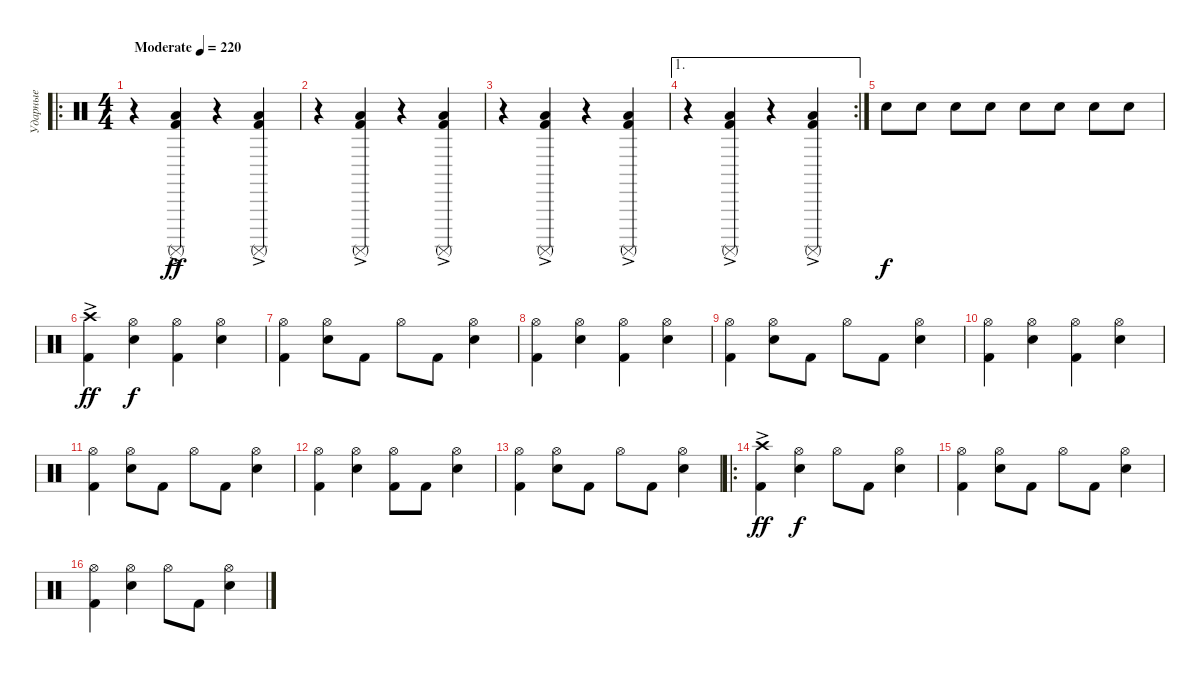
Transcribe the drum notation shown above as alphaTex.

\track ("Ударные" "Ударные") {instrument percussion}
\staff {score}
\articulation defaults
\ro
\ts (4 4)
\tempo (220 "Moderate")
\clef neutral
\ks c
r.4{dy ff} ("Kick (hit) 2" "Low Floor Tom (hit)"{ac} "Surdo (mute)"{ac}).4 r.4 ("Kick (hit) 2" "Low Floor Tom (hit)"{ac} "Surdo (mute)"{ac}).4 |
r.4 ("Kick (hit) 2" "Low Floor Tom (hit)"{ac} "Surdo (mute)"{ac}).4 r.4 ("Kick (hit) 2" "Low Floor Tom (hit)"{ac} "Surdo (mute)"{ac}).4 |
r.4 ("Kick (hit) 2" "Low Floor Tom (hit)"{ac} "Surdo (mute)"{ac}).4 r.4 ("Kick (hit) 2" "Low Floor Tom (hit)"{ac} "Surdo (mute)"{ac}).4 |
\ae 1
\rc 2
r.4 ("Kick (hit) 2" "Low Floor Tom (hit)"{ac} "Surdo (mute)"{ac}).4 r.4 ("Kick (hit) 2" "Low Floor Tom (hit)"{ac} "Surdo (mute)"{ac}).4 |
"Snare (hit) 2".8{dy f} "Snare (hit) 2".8 "Snare (hit) 2".8 "Snare (hit) 2".8 "Snare (hit) 2".8 "Snare (hit) 2".8 "Snare (hit) 2".8 "Snare (hit) 2".8 |
("Kick (hit) 2" "Crash high (hit)"{ac}).4{dy ff} ("Snare (hit) 2" "Hi-Hat (open)").4{dy f} ("Kick (hit) 2" "Hi-Hat (open)").4 ("Snare (hit) 2" "Hi-Hat (open)").4 |
("Kick (hit) 2" "Hi-Hat (open)").4 ("Snare (hit) 2" "Hi-Hat (open)").8 "Kick (hit) 2".8 "Hi-Hat (open)".8 "Kick (hit) 2".8 ("Snare (hit) 2" "Hi-Hat (open)").4 |
("Kick (hit) 2" "Hi-Hat (open)").4 ("Snare (hit) 2" "Hi-Hat (open)").4 ("Kick (hit) 2" "Hi-Hat (open)").4 ("Snare (hit) 2" "Hi-Hat (open)").4 |
("Kick (hit) 2" "Hi-Hat (open)").4 ("Snare (hit) 2" "Hi-Hat (open)").8 "Kick (hit) 2".8 "Hi-Hat (open)".8 "Kick (hit) 2".8 ("Snare (hit) 2" "Hi-Hat (open)").4 |
("Kick (hit) 2" "Hi-Hat (open)").4 ("Snare (hit) 2" "Hi-Hat (open)").4 ("Kick (hit) 2" "Hi-Hat (open)").4 ("Snare (hit) 2" "Hi-Hat (open)").4 |
("Kick (hit) 2" "Hi-Hat (open)").4 ("Snare (hit) 2" "Hi-Hat (open)").8 "Kick (hit) 2".8 "Hi-Hat (open)".8 "Kick (hit) 2".8 ("Snare (hit) 2" "Hi-Hat (open)").4 |
("Kick (hit) 2" "Hi-Hat (open)").4 ("Snare (hit) 2" "Hi-Hat (open)").4 ("Kick (hit) 2" "Hi-Hat (open)").8 "Kick (hit) 2".8 ("Snare (hit) 2" "Hi-Hat (open)").4 |
("Kick (hit) 2" "Hi-Hat (open)").4 ("Snare (hit) 2" "Hi-Hat (open)").8 "Kick (hit) 2".8 "Hi-Hat (open)".8 "Kick (hit) 2".8 ("Snare (hit) 2" "Hi-Hat (open)").4 |
\ro
("Kick (hit) 2" "Crash high (hit)"{ac}).4{dy ff} ("Snare (hit) 2" "Hi-Hat (open)").4{dy f} "Hi-Hat (open)".8 "Kick (hit) 2".8 ("Snare (hit) 2" "Hi-Hat (open)").4 |
("Kick (hit) 2" "Hi-Hat (open)").4 ("Snare (hit) 2" "Hi-Hat (open)").8 "Kick (hit) 2".8 "Hi-Hat (open)".8 "Kick (hit) 2".8 ("Snare (hit) 2" "Hi-Hat (open)").4 |
("Kick (hit) 2" "Hi-Hat (open)").4 ("Snare (hit) 2" "Hi-Hat (open)").4 "Hi-Hat (open)".8 "Kick (hit) 2".8 ("Snare (hit) 2" "Hi-Hat (open)").4
